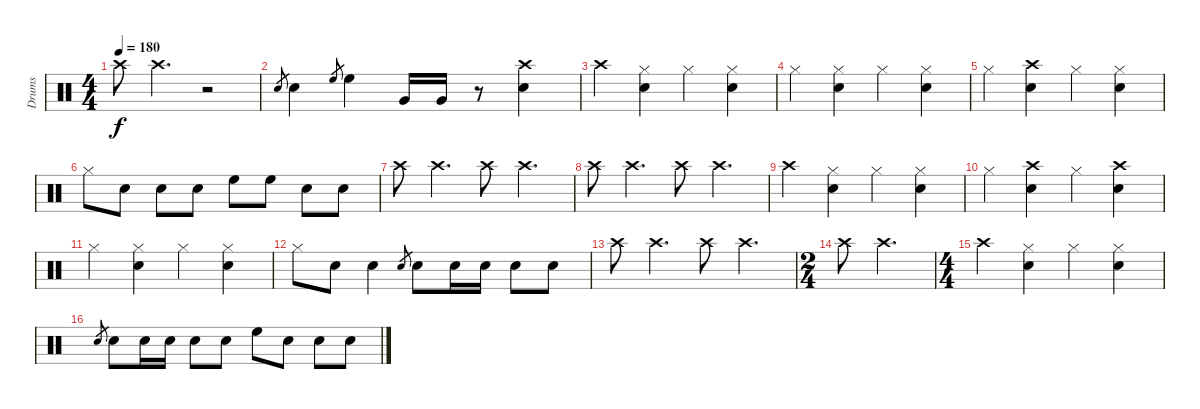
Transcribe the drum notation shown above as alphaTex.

\track ("Drums" "Drums") {instrument percussion}
\staff {score}
\articulation defaults
\ts (4 4)
\tempo 180
\clef neutral
\ks c "Crash high (hit)".8{dy f} "Crash high (hit)".4{d}
r.2 |
"Snare (hit) 2".8{gr} "Snare (hit) 2".4 "High Floor Tom (hit)".8{gr} "High Floor Tom (hit)".4 "Very Low Tom (hit)".16 "Very Low Tom (hit)".16 r.8 ("Crash high (hit)" "Snare (hit) 2").4 |
"Crash high (hit)".4 ("Hi-Hat (closed)" "Snare (hit) 2").4 "Hi-Hat (closed)".4 ("Hi-Hat (closed)" "Snare (hit) 2").4 |
"Hi-Hat (closed)".4 ("Hi-Hat (closed)" "Snare (hit) 2").4 "Hi-Hat (closed)".4 ("Hi-Hat (closed)" "Snare (hit) 2").4 |
"Hi-Hat (closed)".4 ("Crash high (hit)" "Snare (hit) 2").4 "Hi-Hat (closed)".4 ("Hi-Hat (closed)" "Snare (hit) 2").4 |
"Hi-Hat (closed)".8 "Snare (hit) 2".8 "Snare (hit) 2".8 "Snare (hit) 2".8 "High Floor Tom (hit)".8 "High Floor Tom (hit)".8 "Snare (hit) 2".8 "Snare (hit) 2".8 |
"Crash high (hit)".8 "Crash high (hit)".4{d} "Crash high (hit)".8 "Crash high (hit)".4{d} |
"Crash high (hit)".8 "Crash high (hit)".4{d} "Crash high (hit)".8 "Crash high (hit)".4{d} |
"Crash high (hit)".4 ("Hi-Hat (closed)" "Snare (hit) 2").4 "Hi-Hat (closed)".4 ("Hi-Hat (closed)" "Snare (hit) 2").4 |
"Hi-Hat (closed)".4 ("Crash high (hit)" "Snare (hit) 2").4 "Hi-Hat (closed)".4 ("Crash high (hit)" "Snare (hit) 2").4 |
"Hi-Hat (closed)".4 ("Hi-Hat (closed)" "Snare (hit) 2").4 "Hi-Hat (closed)".4 ("Hi-Hat (closed)" "Snare (hit) 2").4 |
"Hi-Hat (closed)".8 "Snare (hit) 2".8 "Snare (hit) 2".4 "Snare (hit) 2".8{gr} "Snare (hit) 2".8 "Snare (hit) 2".16 "Snare (hit) 2".16 "Snare (hit) 2".8 "Snare (hit) 2".8 |
"Crash high (hit)".8 "Crash high (hit)".4{d} "Crash high (hit)".8 "Crash high (hit)".4{d} |
\ts (2 4)
"Crash high (hit)".8 "Crash high (hit)".4{d} |
\ts (4 4)
"Crash high (hit)".4 ("Hi-Hat (closed)" "Snare (hit) 2").4 "Hi-Hat (closed)".4 ("Hi-Hat (closed)" "Snare (hit) 2").4 |
"Snare (hit) 2".8{gr} "Snare (hit) 2".8 "Snare (hit) 2".16 "Snare (hit) 2".16 "Snare (hit) 2".8 "Snare (hit) 2".8 "High Floor Tom (hit)".8 "Snare (hit) 2".8 "Snare (hit) 2".8 "Snare (hit) 2".8
